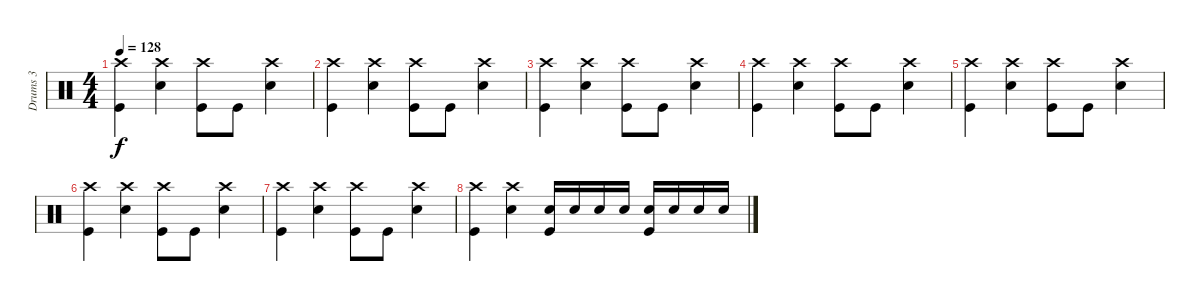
\track ("Drums 3" "Drums 3") {instrument percussion}
\staff {score}
\articulation defaults
\ts (4 4)
\tempo 128
\clef neutral
\ks c
("Crash high (hit)" "Kick (hit)").4{dy f} ("Crash high (hit)" "Electric Snare (hit)").4 ("Crash high (hit)" "Kick (hit)").8 "Kick (hit)".8 ("Crash high (hit)" "Electric Snare (hit)").4 |
("Crash high (hit)" "Kick (hit)").4 ("Crash high (hit)" "Electric Snare (hit)").4 ("Crash high (hit)" "Kick (hit)").8 "Kick (hit)".8 ("Crash high (hit)" "Electric Snare (hit)").4 |
("Crash high (hit)" "Kick (hit)").4 ("Crash high (hit)" "Electric Snare (hit)").4 ("Crash high (hit)" "Kick (hit)").8 "Kick (hit)".8 ("Crash high (hit)" "Electric Snare (hit)").4 |
("Crash high (hit)" "Kick (hit)").4 ("Crash high (hit)" "Electric Snare (hit)").4 ("Crash high (hit)" "Kick (hit)").8 "Kick (hit)".8 ("Crash high (hit)" "Electric Snare (hit)").4 |
("Crash high (hit)" "Kick (hit)").4 ("Crash high (hit)" "Electric Snare (hit)").4 ("Crash high (hit)" "Kick (hit)").8 "Kick (hit)".8 ("Crash high (hit)" "Electric Snare (hit)").4 |
("Crash high (hit)" "Kick (hit)").4 ("Crash high (hit)" "Electric Snare (hit)").4 ("Crash high (hit)" "Kick (hit)").8 "Kick (hit)".8 ("Crash high (hit)" "Electric Snare (hit)").4 |
("Crash high (hit)" "Kick (hit)").4 ("Crash high (hit)" "Electric Snare (hit)").4 ("Crash high (hit)" "Kick (hit)").8 "Kick (hit)".8 ("Crash high (hit)" "Electric Snare (hit)").4 |
("Crash high (hit)" "Kick (hit)").4 ("Crash high (hit)" "Electric Snare (hit)").4 ("Electric Snare (hit)" "Kick (hit)").16 "Electric Snare (hit)".16 "Electric Snare (hit)".16 "Electric Snare (hit)".16 ("Electric Snare (hit)" "Kick (hit)").16 "Electric Snare (hit)".16 "Electric Snare (hit)".16 "Electric Snare (hit)".16
